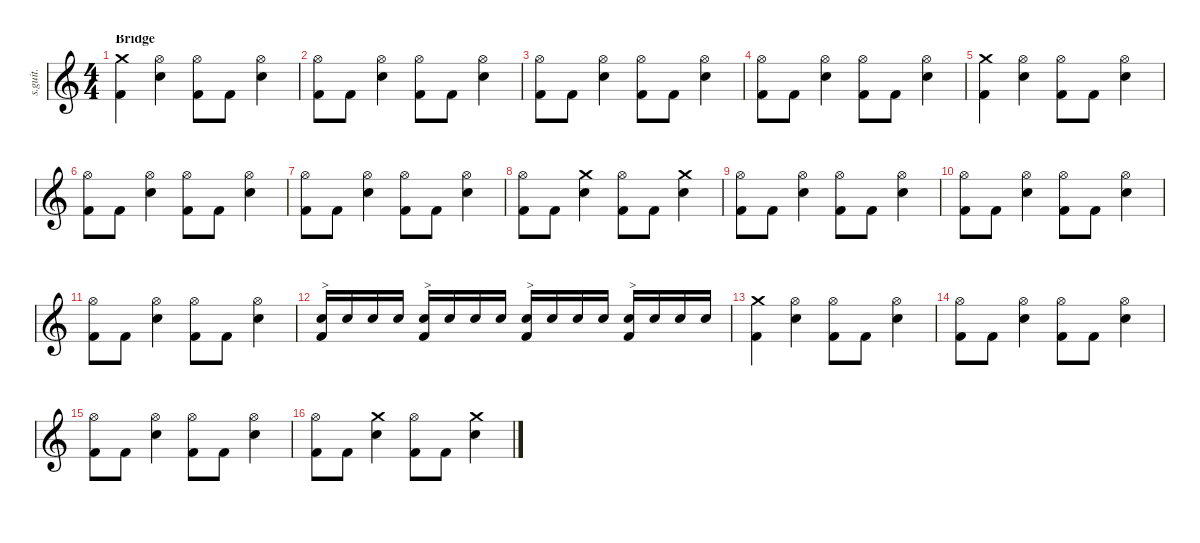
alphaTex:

\defaultSystemsLayout 4
\hideDynamics
\bracketExtendMode nobrackets
\track ("Lars Ulrich - Drums" "s.guit.") {instrument percussion}
\staff {score}
\articulation defaults
\ts (4 4)
\section ("" "Bridge")
\tempo (208 hide)
\clef g2
\ks c
("Crash medium (hit)" "Kick (hit) 2").4{lyrics (0 "") lyrics (1 "") lyrics (2 "") lyrics (3 "") lyrics (4 "") dy f} ("Hi-Hat (open)" "Snare (hit) 2").4{lyrics (0 "") lyrics (1 "") lyrics (2 "") lyrics (3 "") lyrics (4 "")} ("Hi-Hat (open)" "Kick (hit) 2").8{lyrics (0 "") lyrics (1 "") lyrics (2 "") lyrics (3 "") lyrics (4 "")} "Kick (hit) 2".8{lyrics (0 "") lyrics (1 "") lyrics (2 "") lyrics (3 "") lyrics (4 "") dy fff} ("Hi-Hat (open)" "Snare (hit) 2").4{lyrics (0 "") lyrics (1 "") lyrics (2 "") lyrics (3 "") lyrics (4 "") dy f} |
("Hi-Hat (open)" "Kick (hit) 2").8{lyrics (0 "") lyrics (1 "") lyrics (2 "") lyrics (3 "") lyrics (4 "")} "Kick (hit) 2".8{lyrics (0 "") lyrics (1 "") lyrics (2 "") lyrics (3 "") lyrics (4 "") dy fff} ("Hi-Hat (open)" "Snare (hit) 2").4{lyrics (0 "") lyrics (1 "") lyrics (2 "") lyrics (3 "") lyrics (4 "") dy f} ("Hi-Hat (open)" "Kick (hit) 2").8{lyrics (0 "") lyrics (1 "") lyrics (2 "") lyrics (3 "") lyrics (4 "")} "Kick (hit) 2".8{lyrics (0 "") lyrics (1 "") lyrics (2 "") lyrics (3 "") lyrics (4 "") dy fff} ("Hi-Hat (open)" "Snare (hit) 2").4{lyrics (0 "") lyrics (1 "") lyrics (2 "") lyrics (3 "") lyrics (4 "") dy f} |
("Hi-Hat (open)" "Kick (hit) 2").8{lyrics (0 "") lyrics (1 "") lyrics (2 "") lyrics (3 "") lyrics (4 "")} "Kick (hit) 2".8{lyrics (0 "") lyrics (1 "") lyrics (2 "") lyrics (3 "") lyrics (4 "") dy fff} ("Hi-Hat (open)" "Snare (hit) 2").4{lyrics (0 "") lyrics (1 "") lyrics (2 "") lyrics (3 "") lyrics (4 "") dy f} ("Hi-Hat (open)" "Kick (hit) 2").8{lyrics (0 "") lyrics (1 "") lyrics (2 "") lyrics (3 "") lyrics (4 "")} "Kick (hit) 2".8{lyrics (0 "") lyrics (1 "") lyrics (2 "") lyrics (3 "") lyrics (4 "") dy fff} ("Hi-Hat (open)" "Snare (hit) 2").4{lyrics (0 "") lyrics (1 "") lyrics (2 "") lyrics (3 "") lyrics (4 "") dy f} |
("Hi-Hat (open)" "Kick (hit) 2").8{lyrics (0 "") lyrics (1 "") lyrics (2 "") lyrics (3 "") lyrics (4 "")} "Kick (hit) 2".8{lyrics (0 "") lyrics (1 "") lyrics (2 "") lyrics (3 "") lyrics (4 "") dy fff} ("Hi-Hat (open)" "Snare (hit) 2").4{lyrics (0 "") lyrics (1 "") lyrics (2 "") lyrics (3 "") lyrics (4 "") dy f} ("Hi-Hat (open)" "Kick (hit) 2").8{lyrics (0 "") lyrics (1 "") lyrics (2 "") lyrics (3 "") lyrics (4 "")} "Kick (hit) 2".8{lyrics (0 "") lyrics (1 "") lyrics (2 "") lyrics (3 "") lyrics (4 "") dy fff} ("Hi-Hat (open)" "Snare (hit) 2").4{lyrics (0 "") lyrics (1 "") lyrics (2 "") lyrics (3 "") lyrics (4 "") dy f} |
("Crash medium (hit)" "Kick (hit) 2").4{lyrics (0 "") lyrics (1 "") lyrics (2 "") lyrics (3 "") lyrics (4 "")} ("Hi-Hat (open)" "Snare (hit) 2").4{lyrics (0 "") lyrics (1 "") lyrics (2 "") lyrics (3 "") lyrics (4 "")} ("Hi-Hat (open)" "Kick (hit) 2").8{lyrics (0 "") lyrics (1 "") lyrics (2 "") lyrics (3 "") lyrics (4 "")} "Kick (hit) 2".8{lyrics (0 "") lyrics (1 "") lyrics (2 "") lyrics (3 "") lyrics (4 "") dy fff} ("Hi-Hat (open)" "Snare (hit) 2").4{lyrics (0 "") lyrics (1 "") lyrics (2 "") lyrics (3 "") lyrics (4 "") dy f} |
("Hi-Hat (open)" "Kick (hit) 2").8{lyrics (0 "") lyrics (1 "") lyrics (2 "") lyrics (3 "") lyrics (4 "")} "Kick (hit) 2".8{lyrics (0 "") lyrics (1 "") lyrics (2 "") lyrics (3 "") lyrics (4 "") dy fff} ("Hi-Hat (open)" "Snare (hit) 2").4{lyrics (0 "") lyrics (1 "") lyrics (2 "") lyrics (3 "") lyrics (4 "") dy f} ("Hi-Hat (open)" "Kick (hit) 2").8{lyrics (0 "") lyrics (1 "") lyrics (2 "") lyrics (3 "") lyrics (4 "")} "Kick (hit) 2".8{lyrics (0 "") lyrics (1 "") lyrics (2 "") lyrics (3 "") lyrics (4 "") dy fff} ("Hi-Hat (open)" "Snare (hit) 2").4{lyrics (0 "") lyrics (1 "") lyrics (2 "") lyrics (3 "") lyrics (4 "") dy f} |
("Hi-Hat (open)" "Kick (hit) 2").8{lyrics (0 "") lyrics (1 "") lyrics (2 "") lyrics (3 "") lyrics (4 "")} "Kick (hit) 2".8{lyrics (0 "") lyrics (1 "") lyrics (2 "") lyrics (3 "") lyrics (4 "") dy fff} ("Hi-Hat (open)" "Snare (hit) 2").4{lyrics (0 "") lyrics (1 "") lyrics (2 "") lyrics (3 "") lyrics (4 "") dy f} ("Hi-Hat (open)" "Kick (hit) 2").8{lyrics (0 "") lyrics (1 "") lyrics (2 "") lyrics (3 "") lyrics (4 "")} "Kick (hit) 2".8{lyrics (0 "") lyrics (1 "") lyrics (2 "") lyrics (3 "") lyrics (4 "") dy fff} ("Hi-Hat (open)" "Snare (hit) 2").4{lyrics (0 "") lyrics (1 "") lyrics (2 "") lyrics (3 "") lyrics (4 "") dy f} |
("Hi-Hat (open)" "Kick (hit) 2").8{lyrics (0 "") lyrics (1 "") lyrics (2 "") lyrics (3 "") lyrics (4 "")} "Kick (hit) 2".8{lyrics (0 "") lyrics (1 "") lyrics (2 "") lyrics (3 "") lyrics (4 "") dy fff} ("Crash medium (hit)" "Snare (hit) 2").4{lyrics (0 "") lyrics (1 "") lyrics (2 "") lyrics (3 "") lyrics (4 "") dy f} ("Hi-Hat (open)" "Kick (hit) 2").8{lyrics (0 "") lyrics (1 "") lyrics (2 "") lyrics (3 "") lyrics (4 "")} "Kick (hit) 2".8{lyrics (0 "") lyrics (1 "") lyrics (2 "") lyrics (3 "") lyrics (4 "") dy fff} ("Crash medium (hit)" "Snare (hit) 2").4{lyrics (0 "") lyrics (1 "") lyrics (2 "") lyrics (3 "") lyrics (4 "") dy f} |
("Hi-Hat (open)" "Kick (hit) 2").8{lyrics (0 "") lyrics (1 "") lyrics (2 "") lyrics (3 "") lyrics (4 "")} "Kick (hit) 2".8{lyrics (0 "") lyrics (1 "") lyrics (2 "") lyrics (3 "") lyrics (4 "") dy fff} ("Hi-Hat (open)" "Snare (hit) 2").4{lyrics (0 "") lyrics (1 "") lyrics (2 "") lyrics (3 "") lyrics (4 "") dy f} ("Hi-Hat (open)" "Kick (hit) 2").8{lyrics (0 "") lyrics (1 "") lyrics (2 "") lyrics (3 "") lyrics (4 "")} "Kick (hit) 2".8{lyrics (0 "") lyrics (1 "") lyrics (2 "") lyrics (3 "") lyrics (4 "") dy fff} ("Hi-Hat (open)" "Snare (hit) 2").4{lyrics (0 "") lyrics (1 "") lyrics (2 "") lyrics (3 "") lyrics (4 "") dy f} |
("Hi-Hat (open)" "Kick (hit) 2").8{lyrics (0 "") lyrics (1 "") lyrics (2 "") lyrics (3 "") lyrics (4 "")} "Kick (hit) 2".8{lyrics (0 "") lyrics (1 "") lyrics (2 "") lyrics (3 "") lyrics (4 "") dy fff} ("Hi-Hat (open)" "Snare (hit) 2").4{lyrics (0 "") lyrics (1 "") lyrics (2 "") lyrics (3 "") lyrics (4 "") dy f} ("Hi-Hat (open)" "Kick (hit) 2").8{lyrics (0 "") lyrics (1 "") lyrics (2 "") lyrics (3 "") lyrics (4 "")} "Kick (hit) 2".8{lyrics (0 "") lyrics (1 "") lyrics (2 "") lyrics (3 "") lyrics (4 "") dy fff} ("Hi-Hat (open)" "Snare (hit) 2").4{lyrics (0 "") lyrics (1 "") lyrics (2 "") lyrics (3 "") lyrics (4 "") dy f} |
("Hi-Hat (open)" "Kick (hit) 2").8{lyrics (0 "") lyrics (1 "") lyrics (2 "") lyrics (3 "") lyrics (4 "")} "Kick (hit) 2".8{lyrics (0 "") lyrics (1 "") lyrics (2 "") lyrics (3 "") lyrics (4 "") dy fff} ("Hi-Hat (open)" "Snare (hit) 2").4{lyrics (0 "") lyrics (1 "") lyrics (2 "") lyrics (3 "") lyrics (4 "") dy f} ("Hi-Hat (open)" "Kick (hit) 2").8{lyrics (0 "") lyrics (1 "") lyrics (2 "") lyrics (3 "") lyrics (4 "")} "Kick (hit) 2".8{lyrics (0 "") lyrics (1 "") lyrics (2 "") lyrics (3 "") lyrics (4 "") dy fff} ("Hi-Hat (open)" "Snare (hit) 2").4{lyrics (0 "") lyrics (1 "") lyrics (2 "") lyrics (3 "") lyrics (4 "") dy f} |
("Snare (hit) 2" "Kick (hit) 2").16{txt ">" lyrics (0 "") lyrics (1 "") lyrics (2 "") lyrics (3 "") lyrics (4 "") dy fff} "Snare (hit) 2".16{lyrics (0 "") lyrics (1 "") lyrics (2 "") lyrics (3 "") lyrics (4 "") dy f} "Snare (hit) 2".16{lyrics (0 "") lyrics (1 "") lyrics (2 "") lyrics (3 "") lyrics (4 "")} "Snare (hit) 2".16{lyrics (0 "") lyrics (1 "") lyrics (2 "") lyrics (3 "") lyrics (4 "")} ("Snare (hit) 2" "Kick (hit) 2").16{txt ">" lyrics (0 "") lyrics (1 "") lyrics (2 "") lyrics (3 "") lyrics (4 "") dy fff} "Snare (hit) 2".16{lyrics (0 "") lyrics (1 "") lyrics (2 "") lyrics (3 "") lyrics (4 "") dy f} "Snare (hit) 2".16{lyrics (0 "") lyrics (1 "") lyrics (2 "") lyrics (3 "") lyrics (4 "")} "Snare (hit) 2".16{lyrics (0 "") lyrics (1 "") lyrics (2 "") lyrics (3 "") lyrics (4 "")} ("Snare (hit) 2" "Kick (hit) 2").16{txt ">" lyrics (0 "") lyrics (1 "") lyrics (2 "") lyrics (3 "") lyrics (4 "") dy fff} "Snare (hit) 2".16{lyrics (0 "") lyrics (1 "") lyrics (2 "") lyrics (3 "") lyrics (4 "") dy f} "Snare (hit) 2".16{lyrics (0 "") lyrics (1 "") lyrics (2 "") lyrics (3 "") lyrics (4 "")} "Snare (hit) 2".16{lyrics (0 "") lyrics (1 "") lyrics (2 "") lyrics (3 "") lyrics (4 "")} ("Snare (hit) 2" "Kick (hit) 2").16{txt ">" lyrics (0 "") lyrics (1 "") lyrics (2 "") lyrics (3 "") lyrics (4 "") dy fff} "Snare (hit) 2".16{lyrics (0 "") lyrics (1 "") lyrics (2 "") lyrics (3 "") lyrics (4 "") dy f} "Snare (hit) 2".16{lyrics (0 "") lyrics (1 "") lyrics (2 "") lyrics (3 "") lyrics (4 "")} "Snare (hit) 2".16{lyrics (0 "") lyrics (1 "") lyrics (2 "") lyrics (3 "") lyrics (4 "")} |
("Crash medium (hit)" "Kick (hit) 2").4{lyrics (0 "") lyrics (1 "") lyrics (2 "") lyrics (3 "") lyrics (4 "")} ("Hi-Hat (open)" "Snare (hit) 2").4{lyrics (0 "") lyrics (1 "") lyrics (2 "") lyrics (3 "") lyrics (4 "")} ("Hi-Hat (open)" "Kick (hit) 2").8{lyrics (0 "") lyrics (1 "") lyrics (2 "") lyrics (3 "") lyrics (4 "")} "Kick (hit) 2".8{lyrics (0 "") lyrics (1 "") lyrics (2 "") lyrics (3 "") lyrics (4 "") dy fff} ("Hi-Hat (open)" "Snare (hit) 2").4{lyrics (0 "") lyrics (1 "") lyrics (2 "") lyrics (3 "") lyrics (4 "") dy f} |
("Hi-Hat (open)" "Kick (hit) 2").8{lyrics (0 "") lyrics (1 "") lyrics (2 "") lyrics (3 "") lyrics (4 "")} "Kick (hit) 2".8{lyrics (0 "") lyrics (1 "") lyrics (2 "") lyrics (3 "") lyrics (4 "") dy fff} ("Hi-Hat (open)" "Snare (hit) 2").4{lyrics (0 "") lyrics (1 "") lyrics (2 "") lyrics (3 "") lyrics (4 "") dy f} ("Hi-Hat (open)" "Kick (hit) 2").8{lyrics (0 "") lyrics (1 "") lyrics (2 "") lyrics (3 "") lyrics (4 "")} "Kick (hit) 2".8{lyrics (0 "") lyrics (1 "") lyrics (2 "") lyrics (3 "") lyrics (4 "") dy fff} ("Hi-Hat (open)" "Snare (hit) 2").4{lyrics (0 "") lyrics (1 "") lyrics (2 "") lyrics (3 "") lyrics (4 "") dy f} |
("Hi-Hat (open)" "Kick (hit) 2").8{lyrics (0 "") lyrics (1 "") lyrics (2 "") lyrics (3 "") lyrics (4 "")} "Kick (hit) 2".8{lyrics (0 "") lyrics (1 "") lyrics (2 "") lyrics (3 "") lyrics (4 "") dy fff} ("Hi-Hat (open)" "Snare (hit) 2").4{lyrics (0 "") lyrics (1 "") lyrics (2 "") lyrics (3 "") lyrics (4 "") dy f} ("Hi-Hat (open)" "Kick (hit) 2").8{lyrics (0 "") lyrics (1 "") lyrics (2 "") lyrics (3 "") lyrics (4 "")} "Kick (hit) 2".8{lyrics (0 "") lyrics (1 "") lyrics (2 "") lyrics (3 "") lyrics (4 "") dy fff} ("Hi-Hat (open)" "Snare (hit) 2").4{lyrics (0 "") lyrics (1 "") lyrics (2 "") lyrics (3 "") lyrics (4 "") dy f} |
("Hi-Hat (open)" "Kick (hit) 2").8{lyrics (0 "") lyrics (1 "") lyrics (2 "") lyrics (3 "") lyrics (4 "")} "Kick (hit) 2".8{lyrics (0 "") lyrics (1 "") lyrics (2 "") lyrics (3 "") lyrics (4 "") dy fff} ("Crash medium (hit)" "Snare (hit) 2").4{lyrics (0 "") lyrics (1 "") lyrics (2 "") lyrics (3 "") lyrics (4 "") dy f} ("Hi-Hat (open)" "Kick (hit) 2").8{lyrics (0 "") lyrics (1 "") lyrics (2 "") lyrics (3 "") lyrics (4 "")} "Kick (hit) 2".8{lyrics (0 "") lyrics (1 "") lyrics (2 "") lyrics (3 "") lyrics (4 "") dy fff} ("Crash medium (hit)" "Snare (hit) 2").4{lyrics (0 "") lyrics (1 "") lyrics (2 "") lyrics (3 "") lyrics (4 "") dy f}
